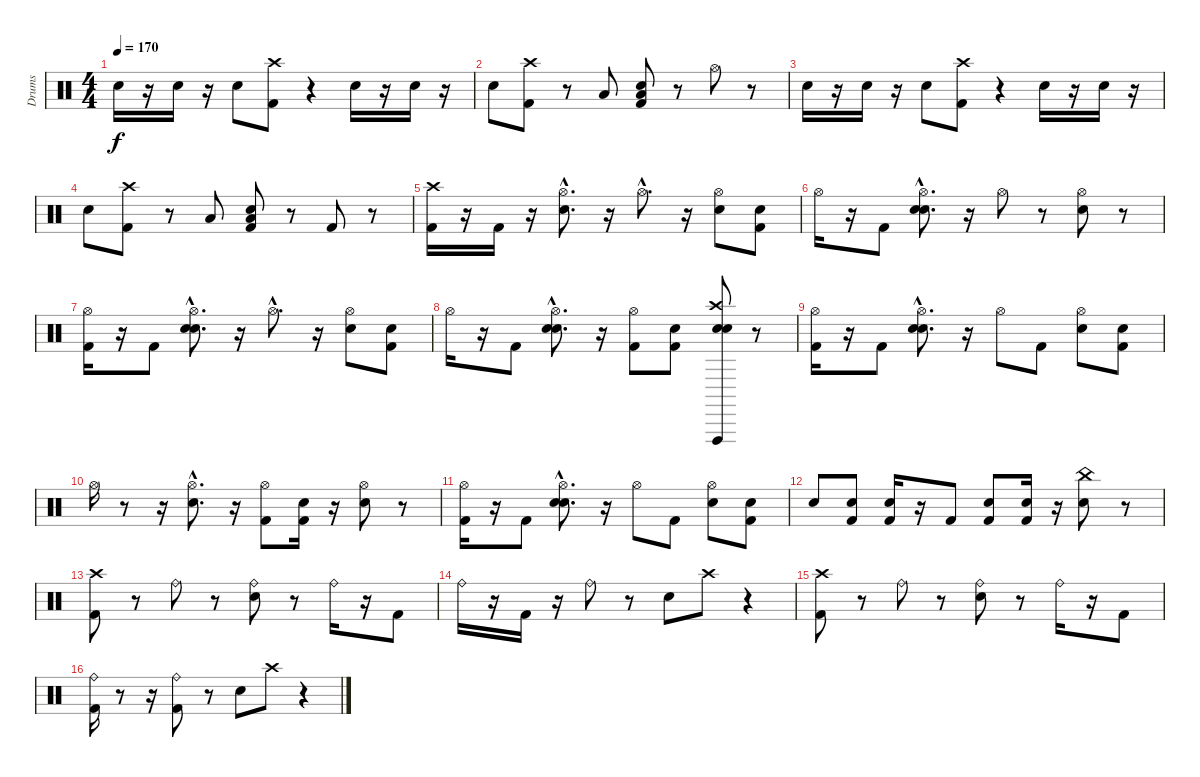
\track ("Drums" "Drums") {instrument percussion}
\staff {score}
\articulation defaults
\ts (4 4)
\tempo 170
\clef neutral
\ks c "Electric Snare (hit)".16{dy f}
r.16 "Electric Snare (hit)".16 r.16 "Electric Snare (hit)".8 ("Kick (hit) 2" "Crash high (hit)").8 r.4 "Electric Snare (hit)".16 r.16 "Electric Snare (hit)".16 r.16 |
"Electric Snare (hit)".8 ("Kick (hit) 2" "Crash high (hit)").8 r.8 "Low Tom (hit)".8 ("Snare (hit)" "Kick (hit) 2" "Low Floor Tom (hit)").8 r.8 "Hi-Hat (open)".8 r.8 |
"Electric Snare (hit)".16 r.16 "Electric Snare (hit)".16 r.16 "Electric Snare (hit)".8 ("Kick (hit) 2" "Crash high (hit)").8 r.4 "Electric Snare (hit)".16 r.16 "Electric Snare (hit)".16 r.16 |
"Electric Snare (hit)".8 ("Kick (hit) 2" "Crash high (hit)").8 r.8 "Low Tom (hit)".8 ("Snare (hit)" "Kick (hit) 2" "Low Floor Tom (hit)").8 r.8 "Kick (hit) 2".8 r.8 |
("Kick (hit) 2" "Crash high (hit)").16 r.16 "Kick (hit) 2".16 r.16 ("Electric Snare (hit)"{hac} "Hi-Hat (open)"{hac}).8{d} r.16 "Hi-Hat (open)"{hac}.8{d} r.16 ("Electric Snare (hit)" "Hi-Hat (open)").8 ("Snare (hit)" "Kick (hit) 2").8 |
"Hi-Hat (open)".16 r.16 "Kick (hit) 2".8 ("Snare (hit)"{hac} "Electric Snare (hit)"{hac} "Hi-Hat (open)"{hac}).8{d} r.16 "Hi-Hat (open)".8 r.8 ("Electric Snare (hit)" "Hi-Hat (open)").8 r.8 |
("Kick (hit) 2" "Hi-Hat (open)").16 r.16 "Kick (hit) 2".8 ("Snare (hit)"{hac} "Electric Snare (hit)"{hac} "Hi-Hat (open)"{hac}).8{d} r.16 "Hi-Hat (open)"{hac}.8{d} r.16 ("Electric Snare (hit)" "Hi-Hat (open)").8 ("Snare (hit)" "Kick (hit) 2").8 |
"Hi-Hat (open)".16 r.16 "Kick (hit) 2".8 ("Snare (hit)"{hac} "Electric Snare (hit)"{hac} "Hi-Hat (open)"{hac}).8{d} r.16 ("Kick (hit) 2" "Hi-Hat (open)").8 ("Snare (hit)" "Kick (hit) 2").8 ("Snare (hit)" "Electric Snare (hit)" "Crash high (hit)" "Vibraslap (hit)").8 r.8 |
("Kick (hit) 2" "Hi-Hat (open)").16 r.16 "Kick (hit) 2".8 ("Snare (hit)"{hac} "Electric Snare (hit)"{hac} "Hi-Hat (open)"{hac}).8{d} r.16 "Hi-Hat (open)".8 "Kick (hit) 2".8 ("Electric Snare (hit)" "Hi-Hat (open)").8 ("Snare (hit)" "Kick (hit) 2").8 |
"Hi-Hat (open)".16 r.8 r.16 ("Electric Snare (hit)"{hac} "Hi-Hat (open)"{hac}).8{d} r.16 ("Kick (hit) 2" "Hi-Hat (open)").8 ("Snare (hit)" "Kick (hit) 2").16 r.16 ("Electric Snare (hit)" "Hi-Hat (open)").8 r.8 |
("Kick (hit) 2" "Hi-Hat (open)").16 r.16 "Kick (hit) 2".8 ("Snare (hit)"{hac} "Electric Snare (hit)"{hac} "Hi-Hat (open)"{hac}).8{d} r.16 "Hi-Hat (open)".8 "Kick (hit) 2".8 ("Electric Snare (hit)" "Hi-Hat (open)").8 ("Snare (hit)" "Kick (hit) 2").8 |
"Electric Snare (hit)".8 ("Snare (hit)" "Kick (hit) 2").8 ("Snare (hit)" "Kick (hit) 2").16 r.16 "Kick (hit) 2".8 ("Snare (hit)" "Kick (hit) 2").8 ("Snare (hit)" "Kick (hit) 2").16 r.16 ("Electric Snare (hit)" "China (hit)").8 r.8 |
("Kick (hit) 2" "Crash high (hit)").8 r.8 "Ride (bell)".8 r.8 ("Electric Snare (hit)" "Ride (bell)").8 r.8 "Ride (bell)".16 r.16 "Kick (hit) 2".8 |
"Ride (bell)".16 r.16 "Kick (hit) 2".16 r.16 "Ride (bell)".8 r.8 "Electric Snare (hit)".8 "Crash high (hit)".8 r.4 |
("Kick (hit) 2" "Crash high (hit)").8 r.8 "Ride (bell)".8 r.8 ("Electric Snare (hit)" "Ride (bell)").8 r.8 "Ride (bell)".16 r.16 "Kick (hit) 2".8 |
("Kick (hit) 2" "Ride (bell)").16 r.8 r.16 ("Kick (hit) 2" "Ride (bell)").8 r.8 "Electric Snare (hit)".8 "Crash high (hit)".8 r.4
